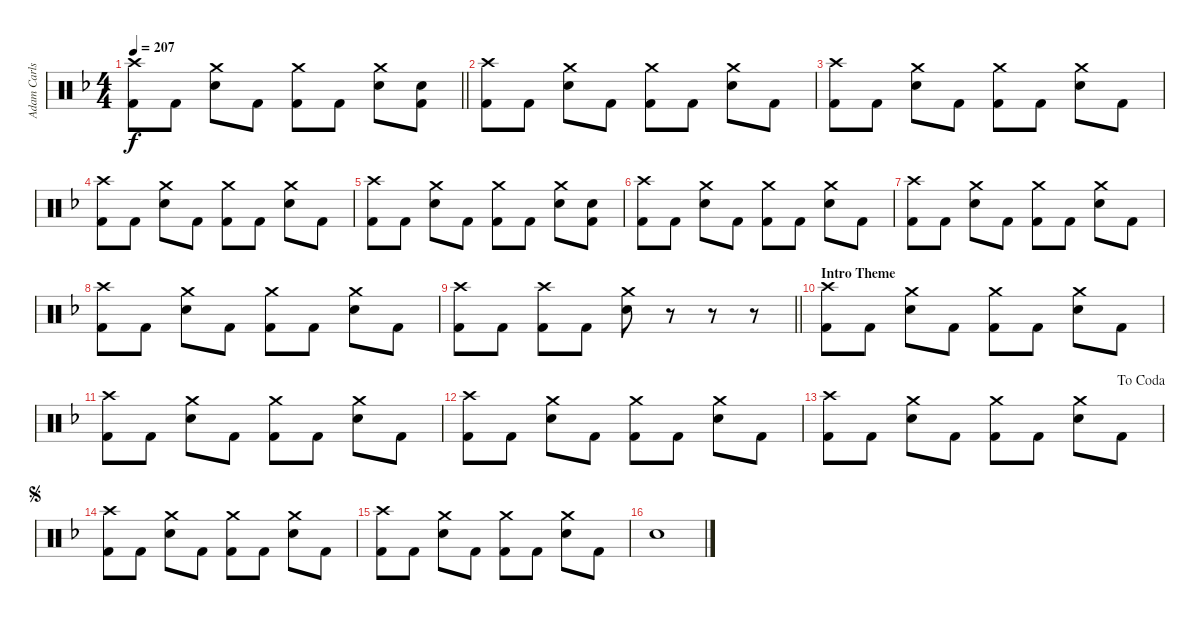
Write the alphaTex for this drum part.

\track ("Adam Carlson" "Adam Carls") {instrument percussion}
\staff {score}
\articulation defaults
\ts (4 4)
\tempo 207
\clef neutral
\barLineRight lightlight
\ks f
("Crash high (hit)" "Kick (hit) 2").8{dy f} "Kick (hit) 2".8 ("Crash medium (hit)" "Electric Snare (hit)").8 "Kick (hit) 2".8 ("Crash medium (hit)" "Kick (hit) 2").8 "Kick (hit) 2".8 ("Crash medium (hit)" "Electric Snare (hit)").8 ("Electric Snare (hit)" "Kick (hit) 2").8 |
("Crash high (hit)" "Kick (hit) 2").8 "Kick (hit) 2".8 ("Crash medium (hit)" "Electric Snare (hit)").8 "Kick (hit) 2".8 ("Crash medium (hit)" "Kick (hit) 2").8 "Kick (hit) 2".8 ("Crash medium (hit)" "Electric Snare (hit)").8 "Kick (hit) 2".8 |
("Crash high (hit)" "Kick (hit) 2").8 "Kick (hit) 2".8 ("Crash medium (hit)" "Electric Snare (hit)").8 "Kick (hit) 2".8 ("Crash medium (hit)" "Kick (hit) 2").8 "Kick (hit) 2".8 ("Crash medium (hit)" "Electric Snare (hit)").8 "Kick (hit) 2".8 |
("Crash high (hit)" "Kick (hit) 2").8 "Kick (hit) 2".8 ("Crash medium (hit)" "Electric Snare (hit)").8 "Kick (hit) 2".8 ("Crash medium (hit)" "Kick (hit) 2").8 "Kick (hit) 2".8 ("Crash medium (hit)" "Electric Snare (hit)").8 "Kick (hit) 2".8 |
("Crash high (hit)" "Kick (hit) 2").8 "Kick (hit) 2".8 ("Crash medium (hit)" "Electric Snare (hit)").8 "Kick (hit) 2".8 ("Crash medium (hit)" "Kick (hit) 2").8 "Kick (hit) 2".8 ("Crash medium (hit)" "Electric Snare (hit)").8 ("Electric Snare (hit)" "Kick (hit) 2").8 |
("Crash high (hit)" "Kick (hit) 2").8 "Kick (hit) 2".8 ("Crash medium (hit)" "Electric Snare (hit)").8 "Kick (hit) 2".8 ("Crash medium (hit)" "Kick (hit) 2").8 "Kick (hit) 2".8 ("Crash medium (hit)" "Electric Snare (hit)").8 "Kick (hit) 2".8 |
("Crash high (hit)" "Kick (hit) 2").8 "Kick (hit) 2".8 ("Crash medium (hit)" "Electric Snare (hit)").8 "Kick (hit) 2".8 ("Crash medium (hit)" "Kick (hit) 2").8 "Kick (hit) 2".8 ("Crash medium (hit)" "Electric Snare (hit)").8 "Kick (hit) 2".8 |
("Crash high (hit)" "Kick (hit) 2").8 "Kick (hit) 2".8 ("Crash medium (hit)" "Electric Snare (hit)").8 "Kick (hit) 2".8 ("Crash medium (hit)" "Kick (hit) 2").8 "Kick (hit) 2".8 ("Crash medium (hit)" "Electric Snare (hit)").8 "Kick (hit) 2".8 |
\barLineRight lightlight
("Crash high (hit)" "Kick (hit) 2").8 "Kick (hit) 2".8 ("Crash high (hit)" "Kick (hit) 2").8 "Kick (hit) 2".8 ("Crash medium (hit)" "Electric Snare (hit)").8 r.8 r.8 r.8 |
\section ("" "Intro Theme")
("Crash high (hit)" "Kick (hit) 2").8 "Kick (hit) 2".8 ("Crash medium (hit)" "Electric Snare (hit)").8 "Kick (hit) 2".8 ("Crash medium (hit)" "Kick (hit) 2").8 "Kick (hit) 2".8 ("Crash medium (hit)" "Electric Snare (hit)").8 "Kick (hit) 2".8 |
("Crash high (hit)" "Kick (hit) 2").8 "Kick (hit) 2".8 ("Crash medium (hit)" "Electric Snare (hit)").8 "Kick (hit) 2".8 ("Crash medium (hit)" "Kick (hit) 2").8 "Kick (hit) 2".8 ("Crash medium (hit)" "Electric Snare (hit)").8 "Kick (hit) 2".8 |
("Crash high (hit)" "Kick (hit) 2").8 "Kick (hit) 2".8 ("Crash medium (hit)" "Electric Snare (hit)").8 "Kick (hit) 2".8 ("Crash medium (hit)" "Kick (hit) 2").8 "Kick (hit) 2".8 ("Crash medium (hit)" "Electric Snare (hit)").8 "Kick (hit) 2".8 |
\jump dacoda
("Crash high (hit)" "Kick (hit) 2").8 "Kick (hit) 2".8 ("Crash medium (hit)" "Electric Snare (hit)").8 "Kick (hit) 2".8 ("Crash medium (hit)" "Kick (hit) 2").8 "Kick (hit) 2".8 ("Crash medium (hit)" "Electric Snare (hit)").8 "Kick (hit) 2".8 |
\jump segno
("Crash high (hit)" "Kick (hit) 2").8 "Kick (hit) 2".8 ("Crash medium (hit)" "Electric Snare (hit)").8 "Kick (hit) 2".8 ("Crash medium (hit)" "Kick (hit) 2").8 "Kick (hit) 2".8 ("Crash medium (hit)" "Electric Snare (hit)").8 "Kick (hit) 2".8 |
("Crash high (hit)" "Kick (hit) 2").8 "Kick (hit) 2".8 ("Crash medium (hit)" "Electric Snare (hit)").8 "Kick (hit) 2".8 ("Crash medium (hit)" "Kick (hit) 2").8 "Kick (hit) 2".8 ("Crash medium (hit)" "Electric Snare (hit)").8 "Kick (hit) 2".8 |
"Electric Snare (hit)".1
